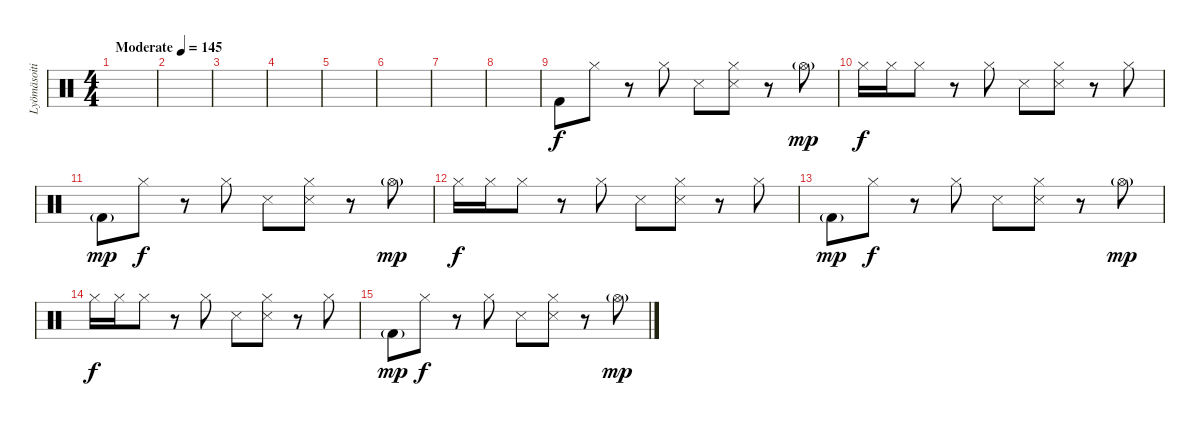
\track ("Lyömäsoitin" "Lyömäsoiti") {instrument percussion}
\staff {score}
\articulation defaults
\ts (4 4)
\tempo (145 "Moderate")
\clef neutral
\ks c
|
|
|
|
|
|
|
|
"Kick (hit) 2".8 "Hi-Hat (closed)".8 r.8 "Hi-Hat (closed)".8 "Snare (side stick) 3".8 ("Snare (side stick) 3" "Hi-Hat (closed)").8 r.8 "Hi-Hat (open)"{g}.8{dy mp} |
"Hi-Hat (closed)".16{dy f} "Hi-Hat (closed)".16 "Hi-Hat (closed)".8 r.8 "Hi-Hat (closed)".8 "Snare (side stick) 3".8 ("Snare (side stick) 3" "Hi-Hat (closed)").8 r.8 "Hi-Hat (closed)".8 |
"Kick (hit) 2"{g}.8{dy mp} "Hi-Hat (closed)".8{dy f} r.8 "Hi-Hat (closed)".8 "Snare (side stick) 3".8 ("Snare (side stick) 3" "Hi-Hat (closed)").8 r.8 "Hi-Hat (open)"{g}.8{dy mp} |
"Hi-Hat (closed)".16{dy f} "Hi-Hat (closed)".16 "Hi-Hat (closed)".8 r.8 "Hi-Hat (closed)".8 "Snare (side stick) 3".8 ("Snare (side stick) 3" "Hi-Hat (closed)").8 r.8 "Hi-Hat (closed)".8 |
"Kick (hit) 2"{g}.8{dy mp} "Hi-Hat (closed)".8{dy f} r.8 "Hi-Hat (closed)".8 "Snare (side stick) 3".8 ("Snare (side stick) 3" "Hi-Hat (closed)").8 r.8 "Hi-Hat (open)"{g}.8{dy mp} |
"Hi-Hat (closed)".16{dy f} "Hi-Hat (closed)".16 "Hi-Hat (closed)".8 r.8 "Hi-Hat (closed)".8 "Snare (side stick) 3".8 ("Snare (side stick) 3" "Hi-Hat (closed)").8 r.8 "Hi-Hat (closed)".8 |
"Kick (hit) 2"{g}.8{dy mp} "Hi-Hat (closed)".8{dy f} r.8 "Hi-Hat (closed)".8 "Snare (side stick) 3".8 ("Snare (side stick) 3" "Hi-Hat (closed)").8 r.8 "Hi-Hat (open)"{g}.8{dy mp}
